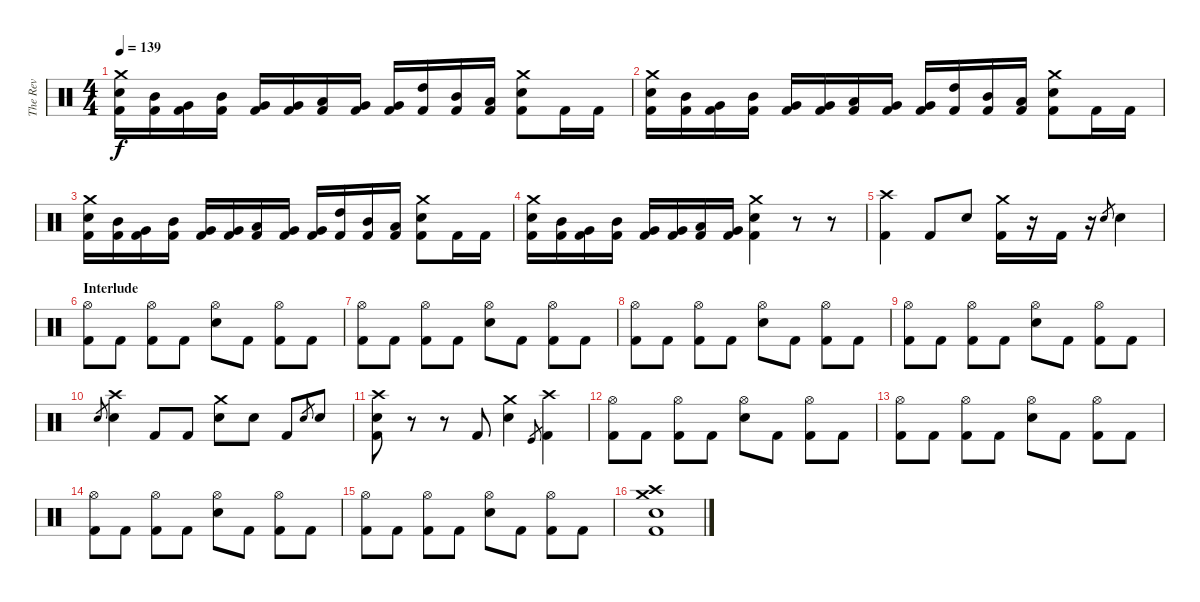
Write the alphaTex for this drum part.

\track ("The Rev" "The Rev") {instrument percussion}
\staff {score}
\articulation defaults
\ts (4 4)
\tempo 139
\clef neutral
\ks c
("Crash medium (hit)" "Electric Snare (hit)" "Kick (hit) 2").16{dy f} ("Mid Tom (hit)" "Kick (hit) 2").16 ("Very Low Tom (hit)" "Kick (hit) 2").16 ("Mid Tom (hit)" "Kick (hit) 2").16 ("Very Low Tom (hit)" "Kick (hit) 2").16 ("Very Low Tom (hit)" "Kick (hit) 2").16 ("Low Tom (hit)" "Kick (hit) 2").16 ("Very Low Tom (hit)" "Kick (hit) 2").16 ("Very Low Tom (hit)" "Kick (hit) 2").16 ("High Tom (hit)" "Kick (hit) 2").16 ("Mid Tom (hit)" "Kick (hit) 2").16 ("Low Tom (hit)" "Kick (hit) 2").16 ("Crash medium (hit)" "Electric Snare (hit)" "Kick (hit) 2").8 "Kick (hit) 2".16 "Kick (hit) 2".16 |
("Crash medium (hit)" "Electric Snare (hit)" "Kick (hit) 2").16 ("Mid Tom (hit)" "Kick (hit) 2").16 ("Very Low Tom (hit)" "Kick (hit) 2").16 ("Mid Tom (hit)" "Kick (hit) 2").16 ("Very Low Tom (hit)" "Kick (hit) 2").16 ("Very Low Tom (hit)" "Kick (hit) 2").16 ("Low Tom (hit)" "Kick (hit) 2").16 ("Very Low Tom (hit)" "Kick (hit) 2").16 ("Very Low Tom (hit)" "Kick (hit) 2").16 ("High Tom (hit)" "Kick (hit) 2").16 ("Mid Tom (hit)" "Kick (hit) 2").16 ("Low Tom (hit)" "Kick (hit) 2").16 ("Crash medium (hit)" "Electric Snare (hit)" "Kick (hit) 2").8 "Kick (hit) 2".16 "Kick (hit) 2".16 |
("Crash medium (hit)" "Electric Snare (hit)" "Kick (hit) 2").16 ("Mid Tom (hit)" "Kick (hit) 2").16 ("Very Low Tom (hit)" "Kick (hit) 2").16 ("Mid Tom (hit)" "Kick (hit) 2").16 ("Very Low Tom (hit)" "Kick (hit) 2").16 ("Very Low Tom (hit)" "Kick (hit) 2").16 ("Low Tom (hit)" "Kick (hit) 2").16 ("Very Low Tom (hit)" "Kick (hit) 2").16 ("Very Low Tom (hit)" "Kick (hit) 2").16 ("High Tom (hit)" "Kick (hit) 2").16 ("Mid Tom (hit)" "Kick (hit) 2").16 ("Low Tom (hit)" "Kick (hit) 2").16 ("Crash medium (hit)" "Electric Snare (hit)" "Kick (hit) 2").8 "Kick (hit) 2".16 "Kick (hit) 2".16 |
("Crash medium (hit)" "Electric Snare (hit)" "Kick (hit) 2").16 ("Mid Tom (hit)" "Kick (hit) 2").16 ("Very Low Tom (hit)" "Kick (hit) 2").16 ("Mid Tom (hit)" "Kick (hit) 2").16 ("Very Low Tom (hit)" "Kick (hit) 2").16 ("Very Low Tom (hit)" "Kick (hit) 2").16 ("Low Tom (hit)" "Kick (hit) 2").16 ("Very Low Tom (hit)" "Kick (hit) 2").16 ("Crash medium (hit)" "Electric Snare (hit)" "Kick (hit) 2").4 r.8 r.8 |
("Crash high (hit)" "Kick (hit) 2").4 "Kick (hit) 2".8 "Electric Snare (hit)".8 ("Crash medium (hit)" "Kick (hit) 2").16 r.16 "Kick (hit) 2".16 r.16 "Electric Snare (hit)".8{gr} "Electric Snare (hit)".4 |
\section ("" "Interlude")
("Hi-Hat (open)" "Kick (hit) 2").8 "Kick (hit) 2".8 ("Hi-Hat (open)" "Kick (hit) 2").8 "Kick (hit) 2".8 ("Hi-Hat (open)" "Electric Snare (hit)").8 "Kick (hit) 2".8 ("Hi-Hat (open)" "Kick (hit) 2").8 "Kick (hit) 2".8 |
("Hi-Hat (open)" "Kick (hit) 2").8 "Kick (hit) 2".8 ("Hi-Hat (open)" "Kick (hit) 2").8 "Kick (hit) 2".8 ("Hi-Hat (open)" "Electric Snare (hit)").8 "Kick (hit) 2".8 ("Hi-Hat (open)" "Kick (hit) 2").8 "Kick (hit) 2".8 |
("Hi-Hat (open)" "Kick (hit) 2").8 "Kick (hit) 2".8 ("Hi-Hat (open)" "Kick (hit) 2").8 "Kick (hit) 2".8 ("Hi-Hat (open)" "Electric Snare (hit)").8 "Kick (hit) 2".8 ("Hi-Hat (open)" "Kick (hit) 2").8 "Kick (hit) 2".8 |
("Hi-Hat (open)" "Kick (hit) 2").8 "Kick (hit) 2".8 ("Hi-Hat (open)" "Kick (hit) 2").8 "Kick (hit) 2".8 ("Hi-Hat (open)" "Electric Snare (hit)").8 "Kick (hit) 2".8 ("Hi-Hat (open)" "Kick (hit) 2").8 "Kick (hit) 2".8 |
"Electric Snare (hit)".8{gr} ("Crash high (hit)" "Electric Snare (hit)").4 "Kick (hit) 2".8 "Kick (hit) 2".8 ("Crash medium (hit)" "Electric Snare (hit)").8 "Electric Snare (hit)".8 "Kick (hit) 2".8 "Electric Snare (hit)".8{gr} "Electric Snare (hit)".8 |
("Crash high (hit)" "Electric Snare (hit)" "Kick (hit) 2").8 r.8 r.8 "Kick (hit) 2".8 ("Crash medium (hit)" "Electric Snare (hit)").4 "Kick (hit)".8{gr} ("Crash high (hit)" "Kick (hit) 2").4 |
("Hi-Hat (open)" "Kick (hit) 2").8 "Kick (hit) 2".8 ("Hi-Hat (open)" "Kick (hit) 2").8 "Kick (hit) 2".8 ("Hi-Hat (open)" "Electric Snare (hit)").8 "Kick (hit) 2".8 ("Hi-Hat (open)" "Kick (hit) 2").8 "Kick (hit) 2".8 |
("Hi-Hat (open)" "Kick (hit) 2").8 "Kick (hit) 2".8 ("Hi-Hat (open)" "Kick (hit) 2").8 "Kick (hit) 2".8 ("Hi-Hat (open)" "Electric Snare (hit)").8 "Kick (hit) 2".8 ("Hi-Hat (open)" "Kick (hit) 2").8 "Kick (hit) 2".8 |
("Hi-Hat (open)" "Kick (hit) 2").8 "Kick (hit) 2".8 ("Hi-Hat (open)" "Kick (hit) 2").8 "Kick (hit) 2".8 ("Hi-Hat (open)" "Electric Snare (hit)").8 "Kick (hit) 2".8 ("Hi-Hat (open)" "Kick (hit) 2").8 "Kick (hit) 2".8 |
("Hi-Hat (open)" "Kick (hit) 2").8 "Kick (hit) 2".8 ("Hi-Hat (open)" "Kick (hit) 2").8 "Kick (hit) 2".8 ("Hi-Hat (open)" "Electric Snare (hit)").8 "Kick (hit) 2".8 ("Hi-Hat (open)" "Kick (hit) 2").8 "Kick (hit) 2".8 |
("Crash high (hit)" "Crash medium (hit)" "Electric Snare (hit)" "Kick (hit) 2").1
